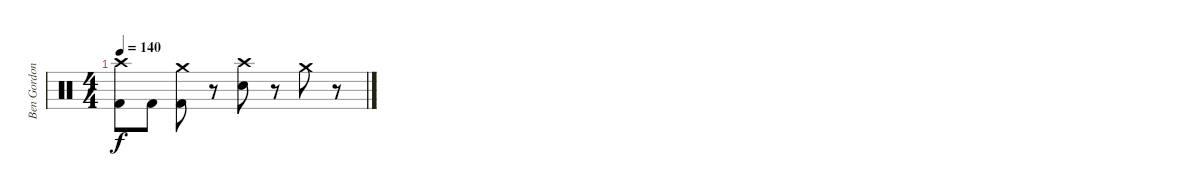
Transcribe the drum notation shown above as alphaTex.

\track ("Ben Gordon" "Ben Gordon") {instrument percussion}
\staff {score}
\articulation defaults
\ts (4 4)
\tempo 140
\clef neutral
\ks c
("Crash high (hit)" "Kick (hit) 2").8{dy f} "Kick (hit) 2".8 ("Crash medium (hit)" "Kick (hit) 2").8 r.8 ("Electric Snare (hit)" "Crash high (hit)").8 r.8 "Crash medium (hit)".8 r.8
